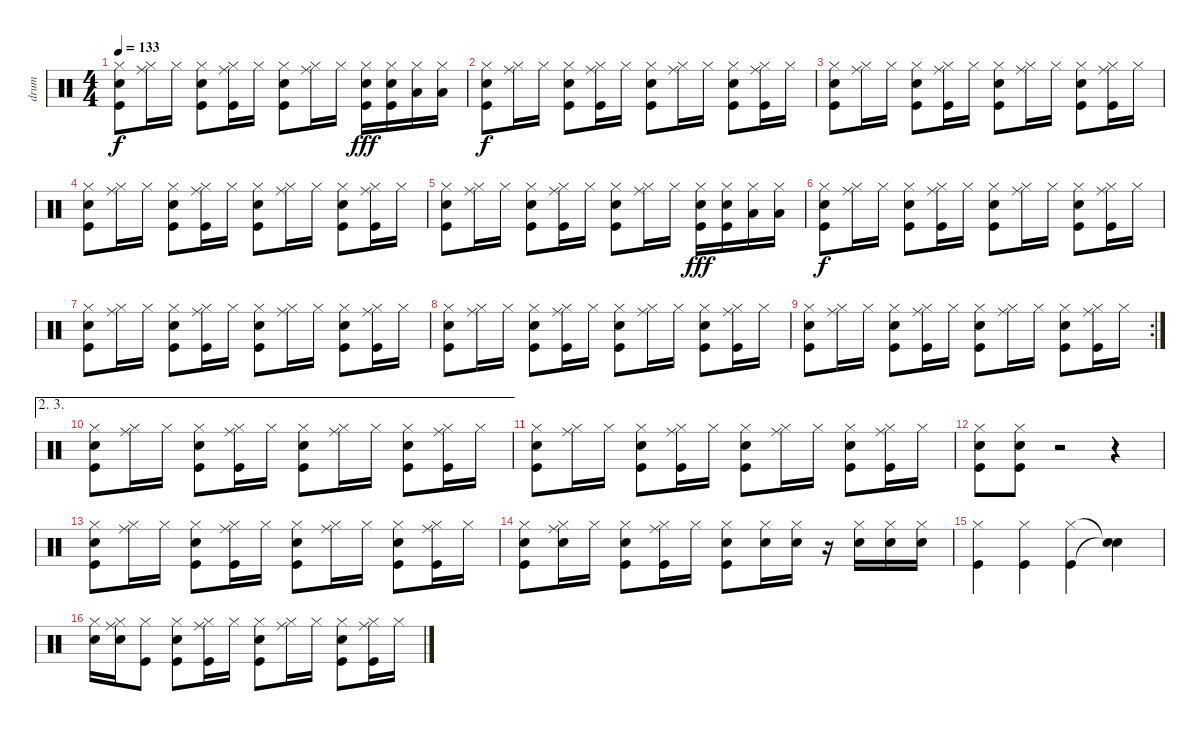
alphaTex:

\track ("drum" "drum") {instrument percussion}
\staff {score}
\articulation defaults
\ts (4 4)
\tempo 133
\clef neutral
\ks c
("Hi-Hat (closed)" "Snare (hit) 2" "Kick (hit)").8{dy f} ("Hi-Hat (closed)" "Ride (middle)").16 "Hi-Hat (closed)".16 ("Hi-Hat (closed)" "Snare (hit) 2" "Kick (hit)").8 ("Hi-Hat (closed)" "Ride (middle)" "Kick (hit)").16 "Hi-Hat (closed)".16 ("Hi-Hat (closed)" "Snare (hit) 2" "Kick (hit)").8 ("Hi-Hat (closed)" "Ride (middle)").16 "Hi-Hat (closed)".16 ("Hi-Hat (closed)" "Snare (hit) 2" "Kick (hit)").16{dy fff} ("Hi-Hat (closed)" "Snare (hit) 2" "Kick (hit)").16 ("Hi-Hat (closed)" "Low Floor Tom (hit)").16 ("Hi-Hat (closed)" "Low Floor Tom (hit)").16 |
("Hi-Hat (closed)" "Snare (hit) 2" "Kick (hit)").8{dy f} ("Hi-Hat (closed)" "Ride (middle)").16 "Hi-Hat (closed)".16 ("Hi-Hat (closed)" "Snare (hit) 2" "Kick (hit)").8 ("Hi-Hat (closed)" "Ride (middle)" "Kick (hit)").16 "Hi-Hat (closed)".16 ("Hi-Hat (closed)" "Snare (hit) 2" "Kick (hit)").8 ("Hi-Hat (closed)" "Ride (middle)").16 "Hi-Hat (closed)".16 ("Hi-Hat (closed)" "Snare (hit) 2" "Kick (hit)").8 ("Hi-Hat (closed)" "Ride (middle)" "Kick (hit)").16 "Hi-Hat (closed)".16 |
("Hi-Hat (closed)" "Snare (hit) 2" "Kick (hit)").8 ("Hi-Hat (closed)" "Ride (middle)").16 "Hi-Hat (closed)".16 ("Hi-Hat (closed)" "Snare (hit) 2" "Kick (hit)").8 ("Hi-Hat (closed)" "Ride (middle)" "Kick (hit)").16 "Hi-Hat (closed)".16 ("Hi-Hat (closed)" "Snare (hit) 2" "Kick (hit)").8 ("Hi-Hat (closed)" "Ride (middle)").16 "Hi-Hat (closed)".16 ("Hi-Hat (closed)" "Snare (hit) 2" "Kick (hit)").8 ("Hi-Hat (closed)" "Ride (middle)" "Kick (hit)").16 "Hi-Hat (closed)".16 |
("Hi-Hat (closed)" "Snare (hit) 2" "Kick (hit)").8 ("Hi-Hat (closed)" "Ride (middle)").16 "Hi-Hat (closed)".16 ("Hi-Hat (closed)" "Snare (hit) 2" "Kick (hit)").8 ("Hi-Hat (closed)" "Ride (middle)" "Kick (hit)").16 "Hi-Hat (closed)".16 ("Hi-Hat (closed)" "Snare (hit) 2" "Kick (hit)").8 ("Hi-Hat (closed)" "Ride (middle)").16 "Hi-Hat (closed)".16 ("Hi-Hat (closed)" "Snare (hit) 2" "Kick (hit)").8 ("Hi-Hat (closed)" "Ride (middle)" "Kick (hit)").16 "Hi-Hat (closed)".16 |
("Hi-Hat (closed)" "Snare (hit) 2" "Kick (hit)").8 ("Hi-Hat (closed)" "Ride (middle)").16 "Hi-Hat (closed)".16 ("Hi-Hat (closed)" "Snare (hit) 2" "Kick (hit)").8 ("Hi-Hat (closed)" "Ride (middle)" "Kick (hit)").16 "Hi-Hat (closed)".16 ("Hi-Hat (closed)" "Snare (hit) 2" "Kick (hit)").8 ("Hi-Hat (closed)" "Ride (middle)").16 "Hi-Hat (closed)".16 ("Hi-Hat (closed)" "Snare (hit) 2" "Kick (hit)").16{dy fff} ("Hi-Hat (closed)" "Snare (hit) 2" "Kick (hit)").16 ("Hi-Hat (closed)" "Low Floor Tom (hit)").16 ("Hi-Hat (closed)" "Low Floor Tom (hit)").16 |
("Hi-Hat (closed)" "Snare (hit) 2" "Kick (hit)").8{dy f} ("Hi-Hat (closed)" "Ride (middle)").16 "Hi-Hat (closed)".16 ("Hi-Hat (closed)" "Snare (hit) 2" "Kick (hit)").8 ("Hi-Hat (closed)" "Ride (middle)" "Kick (hit)").16 "Hi-Hat (closed)".16 ("Hi-Hat (closed)" "Snare (hit) 2" "Kick (hit)").8 ("Hi-Hat (closed)" "Ride (middle)").16 "Hi-Hat (closed)".16 ("Hi-Hat (closed)" "Snare (hit) 2" "Kick (hit)").8 ("Hi-Hat (closed)" "Ride (middle)" "Kick (hit)").16 "Hi-Hat (closed)".16 |
("Hi-Hat (closed)" "Snare (hit) 2" "Kick (hit)").8 ("Hi-Hat (closed)" "Ride (middle)").16 "Hi-Hat (closed)".16 ("Hi-Hat (closed)" "Snare (hit) 2" "Kick (hit)").8 ("Hi-Hat (closed)" "Ride (middle)" "Kick (hit)").16 "Hi-Hat (closed)".16 ("Hi-Hat (closed)" "Snare (hit) 2" "Kick (hit)").8 ("Hi-Hat (closed)" "Ride (middle)").16 "Hi-Hat (closed)".16 ("Hi-Hat (closed)" "Snare (hit) 2" "Kick (hit)").8 ("Hi-Hat (closed)" "Ride (middle)" "Kick (hit)").16 "Hi-Hat (closed)".16 |
("Hi-Hat (closed)" "Snare (hit) 2" "Kick (hit)").8 ("Hi-Hat (closed)" "Ride (middle)").16 "Hi-Hat (closed)".16 ("Hi-Hat (closed)" "Snare (hit) 2" "Kick (hit)").8 ("Hi-Hat (closed)" "Ride (middle)" "Kick (hit)").16 "Hi-Hat (closed)".16 ("Hi-Hat (closed)" "Snare (hit) 2" "Kick (hit)").8 ("Hi-Hat (closed)" "Ride (middle)").16 "Hi-Hat (closed)".16 ("Hi-Hat (closed)" "Snare (hit) 2" "Kick (hit)").8 ("Hi-Hat (closed)" "Ride (middle)" "Kick (hit)").16 "Hi-Hat (closed)".16 |
\rc 2
("Hi-Hat (closed)" "Snare (hit) 2" "Kick (hit)").8 ("Hi-Hat (closed)" "Ride (middle)").16 "Hi-Hat (closed)".16 ("Hi-Hat (closed)" "Snare (hit) 2" "Kick (hit)").8 ("Hi-Hat (closed)" "Ride (middle)" "Kick (hit)").16 "Hi-Hat (closed)".16 ("Hi-Hat (closed)" "Snare (hit) 2" "Kick (hit)").8 ("Hi-Hat (closed)" "Ride (middle)").16 "Hi-Hat (closed)".16 ("Hi-Hat (closed)" "Snare (hit) 2" "Kick (hit)").8 ("Hi-Hat (closed)" "Ride (middle)" "Kick (hit)").16 "Hi-Hat (closed)".16 |
\ae (2 3)
("Hi-Hat (closed)" "Snare (hit) 2" "Kick (hit)").8 ("Hi-Hat (closed)" "Ride (middle)").16 "Hi-Hat (closed)".16 ("Hi-Hat (closed)" "Snare (hit) 2" "Kick (hit)").8 ("Hi-Hat (closed)" "Ride (middle)" "Kick (hit)").16 "Hi-Hat (closed)".16 ("Hi-Hat (closed)" "Snare (hit) 2" "Kick (hit)").8 ("Hi-Hat (closed)" "Ride (middle)").16 "Hi-Hat (closed)".16 ("Hi-Hat (closed)" "Snare (hit) 2" "Kick (hit)").8 ("Hi-Hat (closed)" "Ride (middle)" "Kick (hit)").16 "Hi-Hat (closed)".16 |
("Hi-Hat (closed)" "Snare (hit) 2" "Kick (hit)").8 ("Hi-Hat (closed)" "Ride (middle)").16 "Hi-Hat (closed)".16 ("Hi-Hat (closed)" "Snare (hit) 2" "Kick (hit)").8 ("Hi-Hat (closed)" "Ride (middle)" "Kick (hit)").16 "Hi-Hat (closed)".16 ("Hi-Hat (closed)" "Snare (hit) 2" "Kick (hit)").8 ("Hi-Hat (closed)" "Ride (middle)").16 "Hi-Hat (closed)".16 ("Hi-Hat (closed)" "Snare (hit) 2" "Kick (hit)").8 ("Hi-Hat (closed)" "Ride (middle)" "Kick (hit)").16 "Hi-Hat (closed)".16 |
("Hi-Hat (closed)" "Snare (hit) 2" "Kick (hit)").8 ("Hi-Hat (closed)" "Snare (hit) 2" "Kick (hit)").8 r.2 r.4 |
("Hi-Hat (closed)" "Snare (hit) 2" "Kick (hit)").8 ("Hi-Hat (closed)" "Ride (middle)").16 "Hi-Hat (closed)".16 ("Hi-Hat (closed)" "Snare (hit) 2" "Kick (hit)").8 ("Hi-Hat (closed)" "Ride (middle)" "Kick (hit)").16 "Hi-Hat (closed)".16 ("Hi-Hat (closed)" "Snare (hit) 2" "Kick (hit)").8 ("Hi-Hat (closed)" "Ride (middle)").16 "Hi-Hat (closed)".16 ("Hi-Hat (closed)" "Snare (hit) 2" "Kick (hit)").8 ("Hi-Hat (closed)" "Ride (middle)" "Kick (hit)").16 "Hi-Hat (closed)".16 |
("Hi-Hat (closed)" "Snare (hit) 2" "Kick (hit)").8 ("Hi-Hat (closed)" "Snare (hit) 2" "Ride (middle)").16 "Hi-Hat (closed)".16 ("Hi-Hat (closed)" "Snare (hit) 2" "Kick (hit)").8 ("Hi-Hat (closed)" "Ride (middle)" "Kick (hit)").16 "Hi-Hat (closed)".16 ("Hi-Hat (closed)" "Snare (hit) 2" "Kick (hit)").8 ("Hi-Hat (closed)" "Snare (hit) 2").16 ("Hi-Hat (closed)" "Snare (hit) 2").16 r.16 ("Hi-Hat (closed)" "Snare (hit) 2").16 ("Hi-Hat (closed)" "Snare (hit) 2").16 ("Hi-Hat (closed)" "Snare (hit) 2").16 |
("Hi-Hat (closed)" "Kick (hit)").4 ("Hi-Hat (closed)" "Kick (hit)").4 ("Hi-Hat (closed)" "Kick (hit)").4 ("Snare (hit)"{t} "Snare (hit)"{t}).4 |
("Hi-Hat (closed)" "Snare (hit) 2").16 ("Hi-Hat (closed)" "Snare (hit) 2" "Ride (middle)").16 ("Hi-Hat (closed)" "Kick (hit)").8 ("Hi-Hat (closed)" "Snare (hit) 2" "Kick (hit)").8 ("Hi-Hat (closed)" "Ride (middle)" "Kick (hit)").16 "Hi-Hat (closed)".16 ("Hi-Hat (closed)" "Snare (hit) 2" "Kick (hit)").8 ("Hi-Hat (closed)" "Ride (middle)").16 "Hi-Hat (closed)".16 ("Hi-Hat (closed)" "Snare (hit) 2" "Kick (hit)").8 ("Hi-Hat (closed)" "Ride (middle)" "Kick (hit)").16 "Hi-Hat (closed)".16
